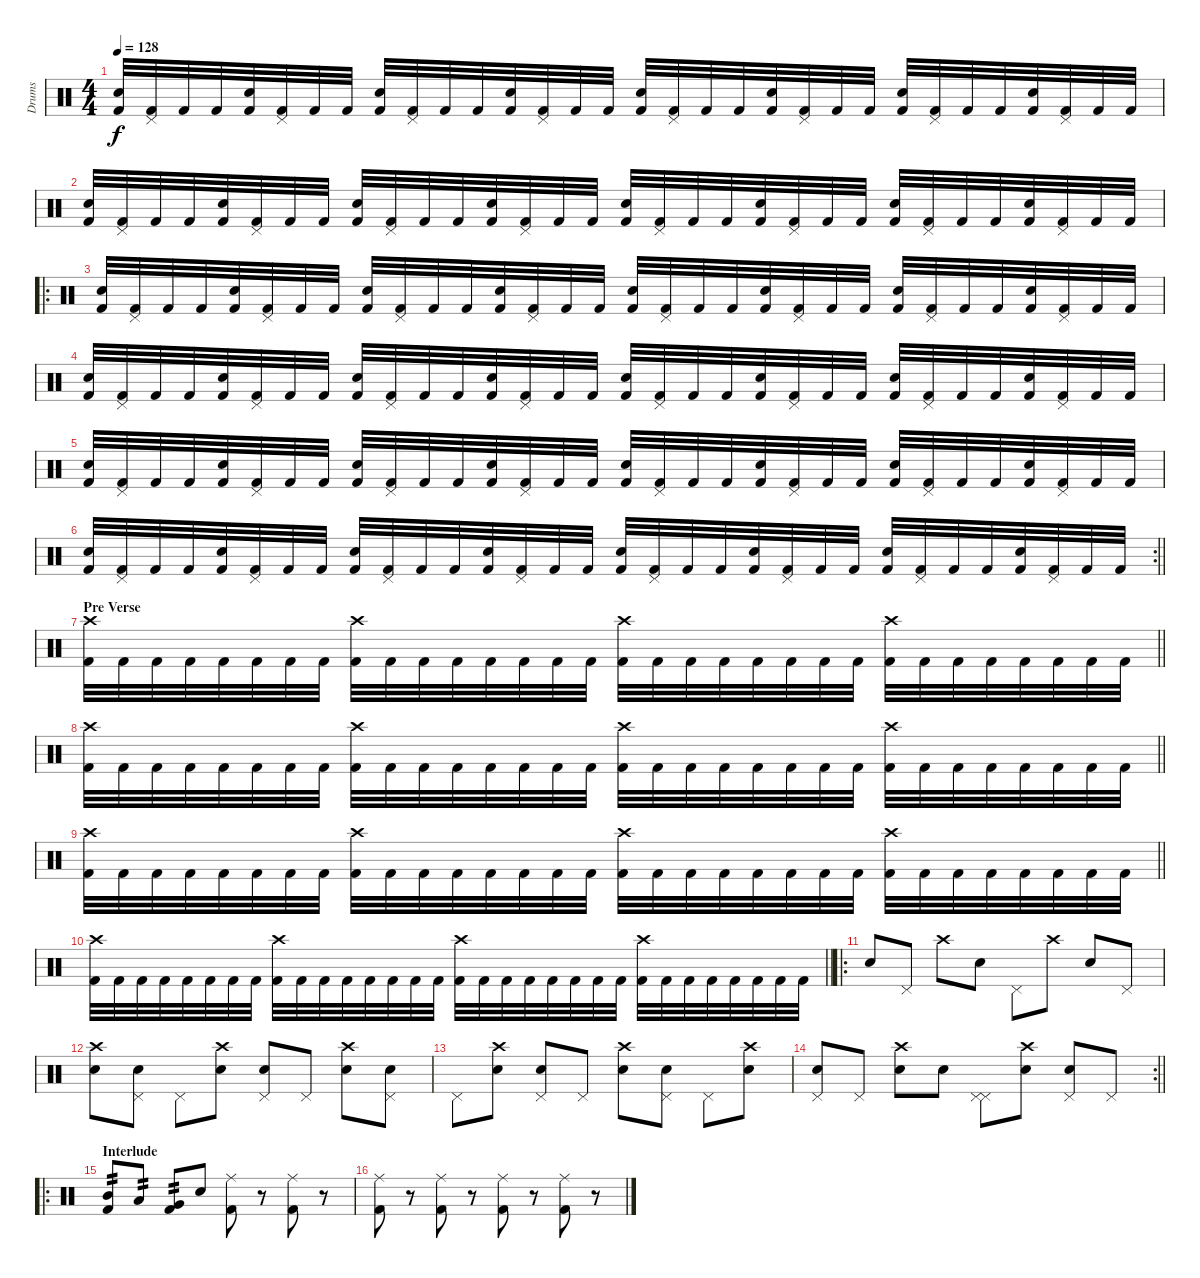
\track ("Drums" "Drums") {instrument percussion}
\staff {score}
\articulation defaults
\ts (4 4)
\tempo 128
\clef neutral
\ks c
("Kick (hit) 2" "Electric Snare (hit)").32{dy f} ("Kick (hit) 2" "Pedal Hi-Hat (hit)").32 "Kick (hit) 2".32 "Kick (hit) 2".32 ("Kick (hit) 2" "Electric Snare (hit)").32 ("Kick (hit) 2" "Pedal Hi-Hat (hit)").32 "Kick (hit) 2".32 "Kick (hit) 2".32 ("Kick (hit) 2" "Electric Snare (hit)").32 ("Kick (hit) 2" "Pedal Hi-Hat (hit)").32 "Kick (hit) 2".32 "Kick (hit) 2".32 ("Kick (hit) 2" "Electric Snare (hit)").32 ("Kick (hit) 2" "Pedal Hi-Hat (hit)").32 "Kick (hit) 2".32 "Kick (hit) 2".32 ("Kick (hit) 2" "Electric Snare (hit)").32 ("Kick (hit) 2" "Pedal Hi-Hat (hit)").32 "Kick (hit) 2".32 "Kick (hit) 2".32 ("Kick (hit) 2" "Electric Snare (hit)").32 ("Kick (hit) 2" "Pedal Hi-Hat (hit)").32 "Kick (hit) 2".32 "Kick (hit) 2".32 ("Kick (hit) 2" "Electric Snare (hit)").32 ("Kick (hit) 2" "Pedal Hi-Hat (hit)").32 "Kick (hit) 2".32 "Kick (hit) 2".32 ("Kick (hit) 2" "Electric Snare (hit)").32 ("Kick (hit) 2" "Pedal Hi-Hat (hit)").32 "Kick (hit) 2".32 "Kick (hit) 2".32 |
("Kick (hit) 2" "Electric Snare (hit)").32 ("Kick (hit) 2" "Pedal Hi-Hat (hit)").32 "Kick (hit) 2".32 "Kick (hit) 2".32 ("Kick (hit) 2" "Electric Snare (hit)").32 ("Kick (hit) 2" "Pedal Hi-Hat (hit)").32 "Kick (hit) 2".32 "Kick (hit) 2".32 ("Kick (hit) 2" "Electric Snare (hit)").32 ("Kick (hit) 2" "Pedal Hi-Hat (hit)").32 "Kick (hit) 2".32 "Kick (hit) 2".32 ("Kick (hit) 2" "Electric Snare (hit)").32 ("Kick (hit) 2" "Pedal Hi-Hat (hit)").32 "Kick (hit) 2".32 "Kick (hit) 2".32 ("Kick (hit) 2" "Electric Snare (hit)").32 ("Kick (hit) 2" "Pedal Hi-Hat (hit)").32 "Kick (hit) 2".32 "Kick (hit) 2".32 ("Kick (hit) 2" "Electric Snare (hit)").32 ("Kick (hit) 2" "Pedal Hi-Hat (hit)").32 "Kick (hit) 2".32 "Kick (hit) 2".32 ("Kick (hit) 2" "Electric Snare (hit)").32 ("Kick (hit) 2" "Pedal Hi-Hat (hit)").32 "Kick (hit) 2".32 "Kick (hit) 2".32 ("Kick (hit) 2" "Electric Snare (hit)").32 ("Kick (hit) 2" "Pedal Hi-Hat (hit)").32 "Kick (hit) 2".32 "Kick (hit) 2".32 |
\ro
("Kick (hit) 2" "Electric Snare (hit)").32 ("Kick (hit) 2" "Pedal Hi-Hat (hit)").32 "Kick (hit) 2".32 "Kick (hit) 2".32 ("Kick (hit) 2" "Electric Snare (hit)").32 ("Kick (hit) 2" "Pedal Hi-Hat (hit)").32 "Kick (hit) 2".32 "Kick (hit) 2".32 ("Kick (hit) 2" "Electric Snare (hit)").32 ("Kick (hit) 2" "Pedal Hi-Hat (hit)").32 "Kick (hit) 2".32 "Kick (hit) 2".32 ("Kick (hit) 2" "Electric Snare (hit)").32 ("Kick (hit) 2" "Pedal Hi-Hat (hit)").32 "Kick (hit) 2".32 "Kick (hit) 2".32 ("Kick (hit) 2" "Electric Snare (hit)").32 ("Kick (hit) 2" "Pedal Hi-Hat (hit)").32 "Kick (hit) 2".32 "Kick (hit) 2".32 ("Kick (hit) 2" "Electric Snare (hit)").32 ("Kick (hit) 2" "Pedal Hi-Hat (hit)").32 "Kick (hit) 2".32 "Kick (hit) 2".32 ("Kick (hit) 2" "Electric Snare (hit)").32 ("Kick (hit) 2" "Pedal Hi-Hat (hit)").32 "Kick (hit) 2".32 "Kick (hit) 2".32 ("Kick (hit) 2" "Electric Snare (hit)").32 ("Kick (hit) 2" "Pedal Hi-Hat (hit)").32 "Kick (hit) 2".32 "Kick (hit) 2".32 |
("Kick (hit) 2" "Electric Snare (hit)").32 ("Kick (hit) 2" "Pedal Hi-Hat (hit)").32 "Kick (hit) 2".32 "Kick (hit) 2".32 ("Kick (hit) 2" "Electric Snare (hit)").32 ("Kick (hit) 2" "Pedal Hi-Hat (hit)").32 "Kick (hit) 2".32 "Kick (hit) 2".32 ("Kick (hit) 2" "Electric Snare (hit)").32 ("Kick (hit) 2" "Pedal Hi-Hat (hit)").32 "Kick (hit) 2".32 "Kick (hit) 2".32 ("Kick (hit) 2" "Electric Snare (hit)").32 ("Kick (hit) 2" "Pedal Hi-Hat (hit)").32 "Kick (hit) 2".32 "Kick (hit) 2".32 ("Kick (hit) 2" "Electric Snare (hit)").32 ("Kick (hit) 2" "Pedal Hi-Hat (hit)").32 "Kick (hit) 2".32 "Kick (hit) 2".32 ("Kick (hit) 2" "Electric Snare (hit)").32 ("Kick (hit) 2" "Pedal Hi-Hat (hit)").32 "Kick (hit) 2".32 "Kick (hit) 2".32 ("Kick (hit) 2" "Electric Snare (hit)").32 ("Kick (hit) 2" "Pedal Hi-Hat (hit)").32 "Kick (hit) 2".32 "Kick (hit) 2".32 ("Kick (hit) 2" "Electric Snare (hit)").32 ("Kick (hit) 2" "Pedal Hi-Hat (hit)").32 "Kick (hit) 2".32 "Kick (hit) 2".32 |
("Kick (hit) 2" "Electric Snare (hit)").32 ("Kick (hit) 2" "Pedal Hi-Hat (hit)").32 "Kick (hit) 2".32 "Kick (hit) 2".32 ("Kick (hit) 2" "Electric Snare (hit)").32 ("Kick (hit) 2" "Pedal Hi-Hat (hit)").32 "Kick (hit) 2".32 "Kick (hit) 2".32 ("Kick (hit) 2" "Electric Snare (hit)").32 ("Kick (hit) 2" "Pedal Hi-Hat (hit)").32 "Kick (hit) 2".32 "Kick (hit) 2".32 ("Kick (hit) 2" "Electric Snare (hit)").32 ("Kick (hit) 2" "Pedal Hi-Hat (hit)").32 "Kick (hit) 2".32 "Kick (hit) 2".32 ("Kick (hit) 2" "Electric Snare (hit)").32 ("Kick (hit) 2" "Pedal Hi-Hat (hit)").32 "Kick (hit) 2".32 "Kick (hit) 2".32 ("Kick (hit) 2" "Electric Snare (hit)").32 ("Kick (hit) 2" "Pedal Hi-Hat (hit)").32 "Kick (hit) 2".32 "Kick (hit) 2".32 ("Kick (hit) 2" "Electric Snare (hit)").32 ("Kick (hit) 2" "Pedal Hi-Hat (hit)").32 "Kick (hit) 2".32 "Kick (hit) 2".32 ("Kick (hit) 2" "Electric Snare (hit)").32 ("Kick (hit) 2" "Pedal Hi-Hat (hit)").32 "Kick (hit) 2".32 "Kick (hit) 2".32 |
\rc 2
\barLineRight lightlight
("Kick (hit) 2" "Electric Snare (hit)").32 ("Kick (hit) 2" "Pedal Hi-Hat (hit)").32 "Kick (hit) 2".32 "Kick (hit) 2".32 ("Kick (hit) 2" "Electric Snare (hit)").32 ("Kick (hit) 2" "Pedal Hi-Hat (hit)").32 "Kick (hit) 2".32 "Kick (hit) 2".32 ("Kick (hit) 2" "Electric Snare (hit)").32 ("Kick (hit) 2" "Pedal Hi-Hat (hit)").32 "Kick (hit) 2".32 "Kick (hit) 2".32 ("Kick (hit) 2" "Electric Snare (hit)").32 ("Kick (hit) 2" "Pedal Hi-Hat (hit)").32 "Kick (hit) 2".32 "Kick (hit) 2".32 ("Kick (hit) 2" "Electric Snare (hit)").32 ("Kick (hit) 2" "Pedal Hi-Hat (hit)").32 "Kick (hit) 2".32 "Kick (hit) 2".32 ("Kick (hit) 2" "Electric Snare (hit)").32 ("Kick (hit) 2" "Pedal Hi-Hat (hit)").32 "Kick (hit) 2".32 "Kick (hit) 2".32 ("Kick (hit) 2" "Electric Snare (hit)").32 ("Kick (hit) 2" "Pedal Hi-Hat (hit)").32 "Kick (hit) 2".32 "Kick (hit) 2".32 ("Kick (hit) 2" "Electric Snare (hit)").32 ("Kick (hit) 2" "Pedal Hi-Hat (hit)").32 "Kick (hit) 2".32 "Kick (hit) 2".32 |
\section ("" "Pre Verse")
\barLineRight lightlight
("Kick (hit) 2" "Crash high (hit)").32 "Kick (hit) 2".32 "Kick (hit) 2".32 "Kick (hit) 2".32 "Kick (hit) 2".32 "Kick (hit) 2".32 "Kick (hit) 2".32 "Kick (hit) 2".32 ("Kick (hit) 2" "Crash high (hit)").32 "Kick (hit) 2".32 "Kick (hit) 2".32 "Kick (hit) 2".32 "Kick (hit) 2".32 "Kick (hit) 2".32 "Kick (hit) 2".32 "Kick (hit) 2".32 ("Kick (hit) 2" "Crash high (hit)").32 "Kick (hit) 2".32 "Kick (hit) 2".32 "Kick (hit) 2".32 "Kick (hit) 2".32 "Kick (hit) 2".32 "Kick (hit) 2".32 "Kick (hit) 2".32 ("Kick (hit) 2" "Crash high (hit)").32 "Kick (hit) 2".32 "Kick (hit) 2".32 "Kick (hit) 2".32 "Kick (hit) 2".32 "Kick (hit) 2".32 "Kick (hit) 2".32 "Kick (hit) 2".32 |
\barLineRight lightlight
("Kick (hit) 2" "Crash high (hit)").32 "Kick (hit) 2".32 "Kick (hit) 2".32 "Kick (hit) 2".32 "Kick (hit) 2".32 "Kick (hit) 2".32 "Kick (hit) 2".32 "Kick (hit) 2".32 ("Kick (hit) 2" "Crash high (hit)").32 "Kick (hit) 2".32 "Kick (hit) 2".32 "Kick (hit) 2".32 "Kick (hit) 2".32 "Kick (hit) 2".32 "Kick (hit) 2".32 "Kick (hit) 2".32 ("Kick (hit) 2" "Crash high (hit)").32 "Kick (hit) 2".32 "Kick (hit) 2".32 "Kick (hit) 2".32 "Kick (hit) 2".32 "Kick (hit) 2".32 "Kick (hit) 2".32 "Kick (hit) 2".32 ("Kick (hit) 2" "Crash high (hit)").32 "Kick (hit) 2".32 "Kick (hit) 2".32 "Kick (hit) 2".32 "Kick (hit) 2".32 "Kick (hit) 2".32 "Kick (hit) 2".32 "Kick (hit) 2".32 |
\barLineRight lightlight
("Kick (hit) 2" "Crash high (hit)").32 "Kick (hit) 2".32 "Kick (hit) 2".32 "Kick (hit) 2".32 "Kick (hit) 2".32 "Kick (hit) 2".32 "Kick (hit) 2".32 "Kick (hit) 2".32 ("Kick (hit) 2" "Crash high (hit)").32 "Kick (hit) 2".32 "Kick (hit) 2".32 "Kick (hit) 2".32 "Kick (hit) 2".32 "Kick (hit) 2".32 "Kick (hit) 2".32 "Kick (hit) 2".32 ("Kick (hit) 2" "Crash high (hit)").32 "Kick (hit) 2".32 "Kick (hit) 2".32 "Kick (hit) 2".32 "Kick (hit) 2".32 "Kick (hit) 2".32 "Kick (hit) 2".32 "Kick (hit) 2".32 ("Kick (hit) 2" "Crash high (hit)").32 "Kick (hit) 2".32 "Kick (hit) 2".32 "Kick (hit) 2".32 "Kick (hit) 2".32 "Kick (hit) 2".32 "Kick (hit) 2".32 "Kick (hit) 2".32 |
\barLineRight lightlight
("Kick (hit) 2" "Crash high (hit)").32 "Kick (hit) 2".32 "Kick (hit) 2".32 "Kick (hit) 2".32 "Kick (hit) 2".32 "Kick (hit) 2".32 "Kick (hit) 2".32 "Kick (hit) 2".32 ("Kick (hit) 2" "Crash high (hit)").32 "Kick (hit) 2".32 "Kick (hit) 2".32 "Kick (hit) 2".32 "Kick (hit) 2".32 "Kick (hit) 2".32 "Kick (hit) 2".32 "Kick (hit) 2".32 ("Kick (hit) 2" "Crash high (hit)").32 "Kick (hit) 2".32 "Kick (hit) 2".32 "Kick (hit) 2".32 "Kick (hit) 2".32 "Kick (hit) 2".32 "Kick (hit) 2".32 "Kick (hit) 2".32 ("Kick (hit) 2" "Crash high (hit)").32 "Kick (hit) 2".32 "Kick (hit) 2".32 "Kick (hit) 2".32 "Kick (hit) 2".32 "Kick (hit) 2".32 "Kick (hit) 2".32 "Kick (hit) 2".32 |
\ro "Electric Snare (hit)".8 "Pedal Hi-Hat (hit)".8 "Crash high (hit)".8 "Electric Snare (hit)".8 "Pedal Hi-Hat (hit)".8 "Crash high (hit)".8 "Electric Snare (hit)".8 "Pedal Hi-Hat (hit)".8
|
("Crash high (hit)" "Electric Snare (hit)").8 ("Electric Snare (hit)" "Pedal Hi-Hat (hit)").8 "Pedal Hi-Hat (hit)".8 ("Crash high (hit)" "Electric Snare (hit)").8 ("Electric Snare (hit)" "Pedal Hi-Hat (hit)").8 "Pedal Hi-Hat (hit)".8 ("Crash high (hit)" "Electric Snare (hit)").8 ("Electric Snare (hit)" "Pedal Hi-Hat (hit)").8 |
"Pedal Hi-Hat (hit)".8 ("Crash high (hit)" "Electric Snare (hit)").8 ("Electric Snare (hit)" "Pedal Hi-Hat (hit)").8 "Pedal Hi-Hat (hit)".8 ("Crash high (hit)" "Electric Snare (hit)").8 ("Electric Snare (hit)" "Pedal Hi-Hat (hit)").8 "Pedal Hi-Hat (hit)".8 ("Crash high (hit)" "Electric Snare (hit)").8 |
\rc 2
\barLineRight lightlight
("Electric Snare (hit)" "Pedal Hi-Hat (hit)").8 "Pedal Hi-Hat (hit)".8 ("Crash high (hit)" "Electric Snare (hit)").8 "Electric Snare (hit)".8 ("Pedal Hi-Hat (hit)" "Pedal Hi-Hat (hit)").8 ("Crash high (hit)" "Electric Snare (hit)").8 ("Electric Snare (hit)" "Pedal Hi-Hat (hit)").8 "Pedal Hi-Hat (hit)".8 |
\ro
\section ("" "Interlude")
("Mid Tom (hit)" "Kick (hit) 2").8{tp 2} "Low Tom (hit)".8{tp 2} ("Very Low Tom (hit)" "Kick (hit) 2").8{tp 2} "Electric Snare (hit)".8 ("Ride (middle)" "Kick (hit) 2").8 r.8 ("Ride (middle)" "Kick (hit) 2").8 r.8 |
("Ride (middle)" "Kick (hit) 2").8 r.8 ("Ride (middle)" "Kick (hit) 2").8 r.8 ("Ride (middle)" "Kick (hit) 2").8 r.8 ("Ride (middle)" "Kick (hit) 2").8 r.8
